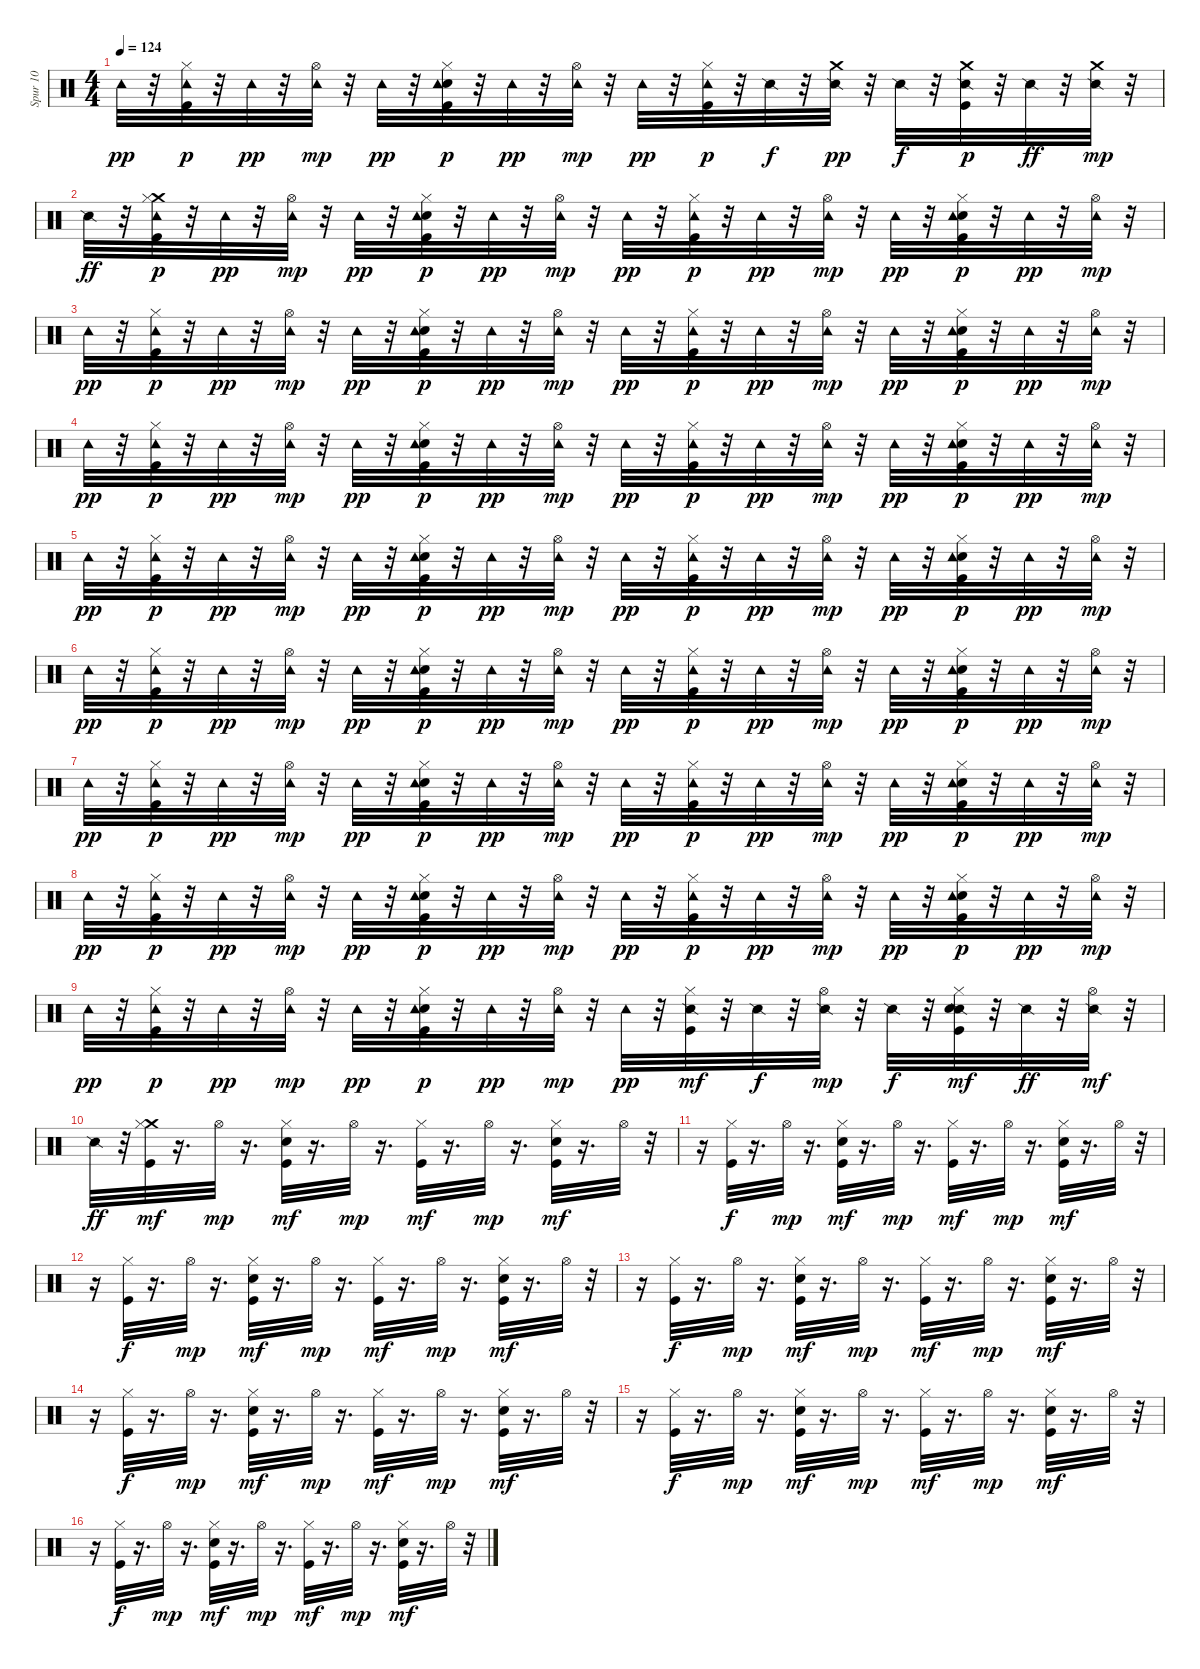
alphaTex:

\track ("Spur 10" "Spur 10") {instrument percussion}
\staff {score}
\articulation defaults
\ts (4 4)
\tempo 124
\clef neutral
\ks c "Tambourine (hit)".32{dy pp}
r.32 ("Kick (hit)" "Hi-Hat (closed)" "Tambourine (hit)").32{dy p} r.32 "Tambourine (hit)".32{dy pp} r.32 ("Hi-Hat (open)" "Tambourine (hit)").32{dy mp} r.32 "Tambourine (hit)".32{dy pp} r.32 ("Kick (hit)" "Snare (hit) 2" "Hi-Hat (closed)" "Tambourine (hit)").32{dy p} r.32 "Tambourine (hit)".32{dy pp} r.32 ("Hi-Hat (open)" "Tambourine (hit)").32{dy mp} r.32 "Tambourine (hit)".32{dy pp} r.32 ("Kick (hit)" "Hi-Hat (closed)" "Tambourine (hit)").32{dy p} r.32 "Snare (side stick) 2".32{dy f balance 10} r.32 ("Snare (side stick) 2" "Crash medium (hit)").32{dy pp balance 14} r.32 "Snare (side stick) 2".32{dy f} r.32 ("Snare (side stick) 2" "Kick (hit)" "Crash medium (hit)").32{dy p balance 7} r.32 "Snare (side stick) 2".32{dy ff} r.32 ("Snare (side stick) 2" "Crash medium (hit)").32{dy mp balance 0} r.32 |
"Snare (side stick) 2".32{dy ff} r.32 ("Crash medium (hit)" "Kick (hit)" "Hi-Hat (closed)" "Tambourine (hit)").32{dy p balance 8} r.32 "Tambourine (hit)".32{dy pp} r.32 ("Hi-Hat (open)" "Tambourine (hit)").32{dy mp} r.32 "Tambourine (hit)".32{dy pp} r.32 ("Kick (hit)" "Snare (hit) 2" "Hi-Hat (closed)" "Tambourine (hit)").32{dy p} r.32 "Tambourine (hit)".32{dy pp} r.32 ("Hi-Hat (open)" "Tambourine (hit)").32{dy mp} r.32 "Tambourine (hit)".32{dy pp} r.32 ("Kick (hit)" "Hi-Hat (closed)" "Tambourine (hit)").32{dy p} r.32 "Tambourine (hit)".32{dy pp} r.32 ("Hi-Hat (open)" "Tambourine (hit)").32{dy mp} r.32 "Tambourine (hit)".32{dy pp} r.32 ("Kick (hit)" "Snare (hit) 2" "Hi-Hat (closed)" "Tambourine (hit)").32{dy p} r.32 "Tambourine (hit)".32{dy pp} r.32 ("Hi-Hat (open)" "Tambourine (hit)").32{dy mp} r.32 |
"Tambourine (hit)".32{dy pp} r.32 ("Kick (hit)" "Hi-Hat (closed)" "Tambourine (hit)").32{dy p} r.32 "Tambourine (hit)".32{dy pp} r.32 ("Hi-Hat (open)" "Tambourine (hit)").32{dy mp} r.32 "Tambourine (hit)".32{dy pp} r.32 ("Kick (hit)" "Snare (hit) 2" "Hi-Hat (closed)" "Tambourine (hit)").32{dy p} r.32 "Tambourine (hit)".32{dy pp} r.32 ("Hi-Hat (open)" "Tambourine (hit)").32{dy mp} r.32 "Tambourine (hit)".32{dy pp} r.32 ("Kick (hit)" "Hi-Hat (closed)" "Tambourine (hit)").32{dy p} r.32 "Tambourine (hit)".32{dy pp} r.32 ("Hi-Hat (open)" "Tambourine (hit)").32{dy mp} r.32 "Tambourine (hit)".32{dy pp} r.32 ("Kick (hit)" "Snare (hit) 2" "Hi-Hat (closed)" "Tambourine (hit)").32{dy p} r.32 "Tambourine (hit)".32{dy pp} r.32 ("Hi-Hat (open)" "Tambourine (hit)").32{dy mp} r.32 |
"Tambourine (hit)".32{dy pp} r.32 ("Kick (hit)" "Hi-Hat (closed)" "Tambourine (hit)").32{dy p} r.32 "Tambourine (hit)".32{dy pp} r.32 ("Hi-Hat (open)" "Tambourine (hit)").32{dy mp} r.32 "Tambourine (hit)".32{dy pp} r.32 ("Kick (hit)" "Snare (hit) 2" "Hi-Hat (closed)" "Tambourine (hit)").32{dy p} r.32 "Tambourine (hit)".32{dy pp} r.32 ("Hi-Hat (open)" "Tambourine (hit)").32{dy mp} r.32 "Tambourine (hit)".32{dy pp} r.32 ("Kick (hit)" "Hi-Hat (closed)" "Tambourine (hit)").32{dy p} r.32 "Tambourine (hit)".32{dy pp} r.32 ("Hi-Hat (open)" "Tambourine (hit)").32{dy mp} r.32 "Tambourine (hit)".32{dy pp} r.32 ("Kick (hit)" "Snare (hit) 2" "Hi-Hat (closed)" "Tambourine (hit)").32{dy p} r.32 "Tambourine (hit)".32{dy pp} r.32 ("Hi-Hat (open)" "Tambourine (hit)").32{dy mp} r.32 |
"Tambourine (hit)".32{dy pp} r.32 ("Kick (hit)" "Hi-Hat (closed)" "Tambourine (hit)").32{dy p} r.32 "Tambourine (hit)".32{dy pp} r.32 ("Hi-Hat (open)" "Tambourine (hit)").32{dy mp} r.32 "Tambourine (hit)".32{dy pp} r.32 ("Kick (hit)" "Snare (hit) 2" "Hi-Hat (closed)" "Tambourine (hit)").32{dy p} r.32 "Tambourine (hit)".32{dy pp} r.32 ("Hi-Hat (open)" "Tambourine (hit)").32{dy mp} r.32 "Tambourine (hit)".32{dy pp} r.32 ("Kick (hit)" "Hi-Hat (closed)" "Tambourine (hit)").32{dy p} r.32 "Tambourine (hit)".32{dy pp} r.32 ("Hi-Hat (open)" "Tambourine (hit)").32{dy mp} r.32 "Tambourine (hit)".32{dy pp} r.32 ("Kick (hit)" "Snare (hit) 2" "Hi-Hat (closed)" "Tambourine (hit)").32{dy p} r.32 "Tambourine (hit)".32{dy pp} r.32 ("Hi-Hat (open)" "Tambourine (hit)").32{dy mp} r.32 |
"Tambourine (hit)".32{dy pp} r.32 ("Kick (hit)" "Hi-Hat (closed)" "Tambourine (hit)").32{dy p} r.32 "Tambourine (hit)".32{dy pp} r.32 ("Hi-Hat (open)" "Tambourine (hit)").32{dy mp} r.32 "Tambourine (hit)".32{dy pp} r.32 ("Kick (hit)" "Snare (hit) 2" "Hi-Hat (closed)" "Tambourine (hit)").32{dy p} r.32 "Tambourine (hit)".32{dy pp} r.32 ("Hi-Hat (open)" "Tambourine (hit)").32{dy mp} r.32 "Tambourine (hit)".32{dy pp} r.32 ("Kick (hit)" "Hi-Hat (closed)" "Tambourine (hit)").32{dy p} r.32 "Tambourine (hit)".32{dy pp} r.32 ("Hi-Hat (open)" "Tambourine (hit)").32{dy mp} r.32 "Tambourine (hit)".32{dy pp} r.32 ("Kick (hit)" "Snare (hit) 2" "Hi-Hat (closed)" "Tambourine (hit)").32{dy p} r.32 "Tambourine (hit)".32{dy pp} r.32 ("Hi-Hat (open)" "Tambourine (hit)").32{dy mp} r.32 |
"Tambourine (hit)".32{dy pp} r.32 ("Kick (hit)" "Hi-Hat (closed)" "Tambourine (hit)").32{dy p} r.32 "Tambourine (hit)".32{dy pp} r.32 ("Hi-Hat (open)" "Tambourine (hit)").32{dy mp} r.32 "Tambourine (hit)".32{dy pp} r.32 ("Kick (hit)" "Snare (hit) 2" "Hi-Hat (closed)" "Tambourine (hit)").32{dy p} r.32 "Tambourine (hit)".32{dy pp} r.32 ("Hi-Hat (open)" "Tambourine (hit)").32{dy mp} r.32 "Tambourine (hit)".32{dy pp} r.32 ("Kick (hit)" "Hi-Hat (closed)" "Tambourine (hit)").32{dy p} r.32 "Tambourine (hit)".32{dy pp} r.32 ("Hi-Hat (open)" "Tambourine (hit)").32{dy mp} r.32 "Tambourine (hit)".32{dy pp} r.32 ("Kick (hit)" "Snare (hit) 2" "Hi-Hat (closed)" "Tambourine (hit)").32{dy p} r.32 "Tambourine (hit)".32{dy pp} r.32 ("Hi-Hat (open)" "Tambourine (hit)").32{dy mp} r.32 |
"Tambourine (hit)".32{dy pp} r.32 ("Kick (hit)" "Hi-Hat (closed)" "Tambourine (hit)").32{dy p} r.32 "Tambourine (hit)".32{dy pp} r.32 ("Hi-Hat (open)" "Tambourine (hit)").32{dy mp} r.32 "Tambourine (hit)".32{dy pp} r.32 ("Kick (hit)" "Snare (hit) 2" "Hi-Hat (closed)" "Tambourine (hit)").32{dy p} r.32 "Tambourine (hit)".32{dy pp} r.32 ("Hi-Hat (open)" "Tambourine (hit)").32{dy mp} r.32 "Tambourine (hit)".32{dy pp} r.32 ("Kick (hit)" "Hi-Hat (closed)" "Tambourine (hit)").32{dy p} r.32 "Tambourine (hit)".32{dy pp} r.32 ("Hi-Hat (open)" "Tambourine (hit)").32{dy mp} r.32 "Tambourine (hit)".32{dy pp} r.32 ("Kick (hit)" "Snare (hit) 2" "Hi-Hat (closed)" "Tambourine (hit)").32{dy p} r.32 "Tambourine (hit)".32{dy pp} r.32 ("Hi-Hat (open)" "Tambourine (hit)").32{dy mp} r.32 |
"Tambourine (hit)".32{dy pp} r.32 ("Kick (hit)" "Hi-Hat (closed)" "Tambourine (hit)").32{dy p} r.32 "Tambourine (hit)".32{dy pp} r.32 ("Hi-Hat (open)" "Tambourine (hit)").32{dy mp} r.32 "Tambourine (hit)".32{dy pp} r.32 ("Kick (hit)" "Snare (hit) 2" "Hi-Hat (closed)" "Tambourine (hit)").32{dy p} r.32 "Tambourine (hit)".32{dy pp} r.32 ("Hi-Hat (open)" "Tambourine (hit)").32{dy mp} r.32 "Tambourine (hit)".32{dy pp} r.32 ("Snare (side stick) 2" "Kick (hit)" "Hi-Hat (closed)").32{dy mf} r.32 "Snare (side stick) 2".32{dy f} r.32 ("Snare (side stick) 2" "Hi-Hat (open)").32{dy mp balance 11} r.32 "Snare (side stick) 2".32{dy f} r.32 ("Snare (side stick) 2" "Kick (hit)" "Snare (hit) 2" "Hi-Hat (closed)").32{dy mf balance 8} r.32 "Snare (side stick) 2".32{dy ff} r.32 ("Snare (side stick) 2" "Hi-Hat (open)").32{dy mf balance 4} r.32 |
"Snare (side stick) 2".32{dy ff} r.32 ("Crash medium (hit)" "Kick (hit)" "Hi-Hat (closed)").32{dy mf balance 8} r.16{d} "Hi-Hat (open)".32{dy mp} r.16{d} ("Kick (hit)" "Snare (hit) 2" "Hi-Hat (closed)").32{dy mf} r.16{d} "Hi-Hat (open)".32{dy mp} r.16{d} ("Kick (hit)" "Hi-Hat (closed)").32{dy mf} r.16{d} "Hi-Hat (open)".32{dy mp} r.16{d} ("Kick (hit)" "Snare (hit) 2" "Hi-Hat (closed)").32{dy mf} r.16{d} "Hi-Hat (open)".32 r.32 |
r.16 ("Kick (hit)" "Hi-Hat (closed)").32{dy f} r.16{d} "Hi-Hat (open)".32{dy mp} r.16{d} ("Kick (hit)" "Snare (hit) 2" "Hi-Hat (closed)").32{dy mf} r.16{d} "Hi-Hat (open)".32{dy mp} r.16{d} ("Kick (hit)" "Hi-Hat (closed)").32{dy mf} r.16{d} "Hi-Hat (open)".32{dy mp} r.16{d} ("Kick (hit)" "Snare (hit) 2" "Hi-Hat (closed)").32{dy mf} r.16{d} "Hi-Hat (open)".32 r.32 |
r.16 ("Kick (hit)" "Hi-Hat (closed)").32{dy f} r.16{d} "Hi-Hat (open)".32{dy mp} r.16{d} ("Kick (hit)" "Snare (hit) 2" "Hi-Hat (closed)").32{dy mf} r.16{d} "Hi-Hat (open)".32{dy mp} r.16{d} ("Kick (hit)" "Hi-Hat (closed)").32{dy mf} r.16{d} "Hi-Hat (open)".32{dy mp} r.16{d} ("Kick (hit)" "Snare (hit) 2" "Hi-Hat (closed)").32{dy mf} r.16{d} "Hi-Hat (open)".32 r.32 |
r.16 ("Kick (hit)" "Hi-Hat (closed)").32{dy f} r.16{d} "Hi-Hat (open)".32{dy mp} r.16{d} ("Kick (hit)" "Snare (hit) 2" "Hi-Hat (closed)").32{dy mf} r.16{d} "Hi-Hat (open)".32{dy mp} r.16{d} ("Kick (hit)" "Hi-Hat (closed)").32{dy mf} r.16{d} "Hi-Hat (open)".32{dy mp} r.16{d} ("Kick (hit)" "Snare (hit) 2" "Hi-Hat (closed)").32{dy mf} r.16{d} "Hi-Hat (open)".32 r.32 |
r.16 ("Kick (hit)" "Hi-Hat (closed)").32{dy f} r.16{d} "Hi-Hat (open)".32{dy mp} r.16{d} ("Kick (hit)" "Snare (hit) 2" "Hi-Hat (closed)").32{dy mf} r.16{d} "Hi-Hat (open)".32{dy mp} r.16{d} ("Kick (hit)" "Hi-Hat (closed)").32{dy mf} r.16{d} "Hi-Hat (open)".32{dy mp} r.16{d} ("Kick (hit)" "Snare (hit) 2" "Hi-Hat (closed)").32{dy mf} r.16{d} "Hi-Hat (open)".32 r.32 |
r.16 ("Kick (hit)" "Hi-Hat (closed)").32{dy f} r.16{d} "Hi-Hat (open)".32{dy mp} r.16{d} ("Kick (hit)" "Snare (hit) 2" "Hi-Hat (closed)").32{dy mf} r.16{d} "Hi-Hat (open)".32{dy mp} r.16{d} ("Kick (hit)" "Hi-Hat (closed)").32{dy mf} r.16{d} "Hi-Hat (open)".32{dy mp} r.16{d} ("Kick (hit)" "Snare (hit) 2" "Hi-Hat (closed)").32{dy mf} r.16{d} "Hi-Hat (open)".32 r.32 |
r.16 ("Kick (hit)" "Hi-Hat (closed)").32{dy f} r.16{d} "Hi-Hat (open)".32{dy mp} r.16{d} ("Kick (hit)" "Snare (hit) 2" "Hi-Hat (closed)").32{dy mf} r.16{d} "Hi-Hat (open)".32{dy mp} r.16{d} ("Kick (hit)" "Hi-Hat (closed)").32{dy mf} r.16{d} "Hi-Hat (open)".32{dy mp} r.16{d} ("Kick (hit)" "Snare (hit) 2" "Hi-Hat (closed)").32{dy mf} r.16{d} "Hi-Hat (open)".32 r.32
